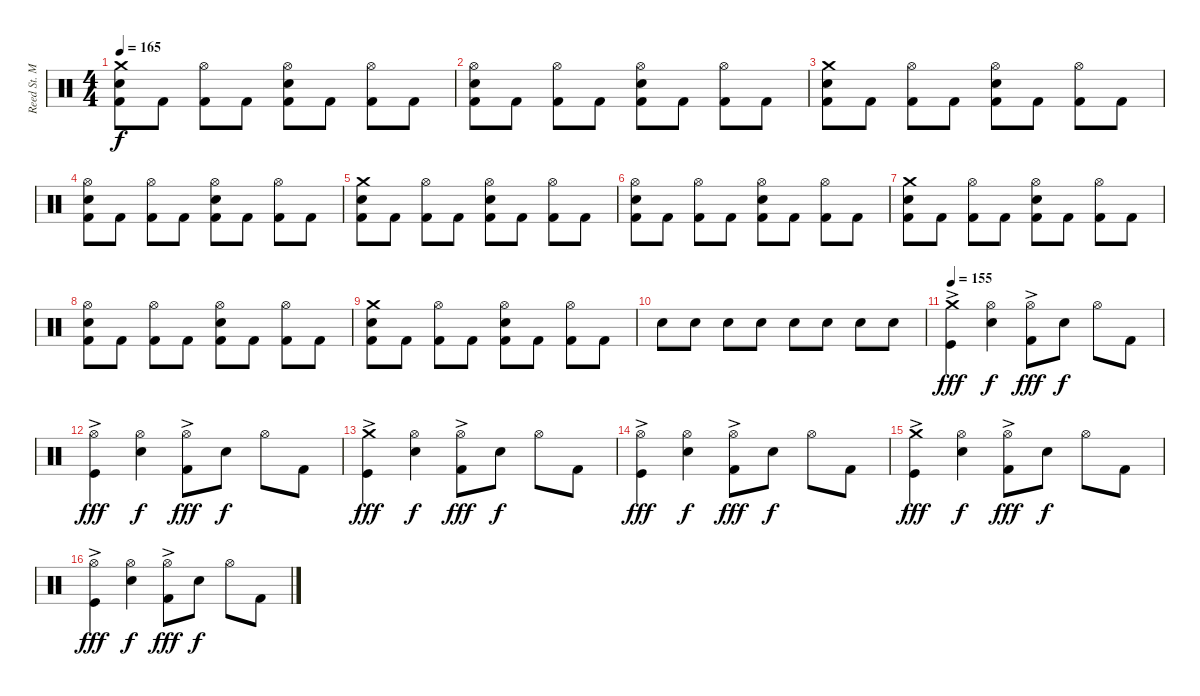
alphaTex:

\track ("Reed St. Mark" "Reed St. M") {instrument percussion}
\staff {score}
\articulation defaults
\ts (4 4)
\tempo 165
\clef neutral
\ks c
("Crash medium (hit)" "Snare (hit) 2" "Kick (hit) 2").8{dy f} "Kick (hit) 2".8 ("Hi-Hat (open)" "Kick (hit) 2").8 "Kick (hit) 2".8 ("Hi-Hat (open)" "Snare (hit) 2" "Kick (hit) 2").8 "Kick (hit) 2".8 ("Hi-Hat (open)" "Kick (hit) 2").8 "Kick (hit) 2".8 |
("Hi-Hat (open)" "Snare (hit) 2" "Kick (hit) 2").8 "Kick (hit) 2".8 ("Hi-Hat (open)" "Kick (hit) 2").8 "Kick (hit) 2".8 ("Hi-Hat (open)" "Snare (hit) 2" "Kick (hit) 2").8 "Kick (hit) 2".8 ("Hi-Hat (open)" "Kick (hit) 2").8 "Kick (hit) 2".8 |
("Crash medium (hit)" "Snare (hit) 2" "Kick (hit) 2").8 "Kick (hit) 2".8 ("Hi-Hat (open)" "Kick (hit) 2").8 "Kick (hit) 2".8 ("Hi-Hat (open)" "Snare (hit) 2" "Kick (hit) 2").8 "Kick (hit) 2".8 ("Hi-Hat (open)" "Kick (hit) 2").8 "Kick (hit) 2".8 |
("Hi-Hat (open)" "Snare (hit) 2" "Kick (hit) 2").8 "Kick (hit) 2".8 ("Hi-Hat (open)" "Kick (hit) 2").8 "Kick (hit) 2".8 ("Hi-Hat (open)" "Snare (hit) 2" "Kick (hit) 2").8 "Kick (hit) 2".8 ("Hi-Hat (open)" "Kick (hit) 2").8 "Kick (hit) 2".8 |
("Crash medium (hit)" "Snare (hit) 2" "Kick (hit) 2").8 "Kick (hit) 2".8 ("Hi-Hat (open)" "Kick (hit) 2").8 "Kick (hit) 2".8 ("Hi-Hat (open)" "Snare (hit) 2" "Kick (hit) 2").8 "Kick (hit) 2".8 ("Hi-Hat (open)" "Kick (hit) 2").8 "Kick (hit) 2".8 |
("Hi-Hat (open)" "Snare (hit) 2" "Kick (hit) 2").8 "Kick (hit) 2".8 ("Hi-Hat (open)" "Kick (hit) 2").8 "Kick (hit) 2".8 ("Hi-Hat (open)" "Snare (hit) 2" "Kick (hit) 2").8 "Kick (hit) 2".8 ("Hi-Hat (open)" "Kick (hit) 2").8 "Kick (hit) 2".8 |
("Crash medium (hit)" "Snare (hit) 2" "Kick (hit) 2").8 "Kick (hit) 2".8 ("Hi-Hat (open)" "Kick (hit) 2").8 "Kick (hit) 2".8 ("Hi-Hat (open)" "Snare (hit) 2" "Kick (hit) 2").8 "Kick (hit) 2".8 ("Hi-Hat (open)" "Kick (hit) 2").8 "Kick (hit) 2".8 |
("Hi-Hat (open)" "Snare (hit) 2" "Kick (hit) 2").8 "Kick (hit) 2".8 ("Hi-Hat (open)" "Kick (hit) 2").8 "Kick (hit) 2".8 ("Hi-Hat (open)" "Snare (hit) 2" "Kick (hit) 2").8 "Kick (hit) 2".8 ("Hi-Hat (open)" "Kick (hit) 2").8 "Kick (hit) 2".8 |
("Crash medium (hit)" "Snare (hit) 2" "Kick (hit) 2").8 "Kick (hit) 2".8 ("Hi-Hat (open)" "Kick (hit) 2").8 "Kick (hit) 2".8 ("Hi-Hat (open)" "Snare (hit) 2" "Kick (hit) 2").8 "Kick (hit) 2".8 ("Hi-Hat (open)" "Kick (hit) 2").8 "Kick (hit) 2".8 |
"Snare (hit) 2".8 "Snare (hit) 2".8 "Snare (hit) 2".8 "Snare (hit) 2".8 "Snare (hit) 2".8 "Snare (hit) 2".8 "Snare (hit) 2".8 "Snare (hit) 2".8 |
\tempo 155
("Crash medium (hit)" "Kick (hit)"{ac}).4{dy fff} ("Hi-Hat (open)" "Snare (hit) 2").4{dy f} ("Hi-Hat (open)"{ac} "Kick (hit) 2").8{dy fff} "Snare (hit) 2".8{dy f} "Hi-Hat (open)".8 "Kick (hit) 2".8 |
("Hi-Hat (open)" "Kick (hit)"{ac}).4{dy fff} ("Hi-Hat (open)" "Snare (hit) 2").4{dy f} ("Hi-Hat (open)"{ac} "Kick (hit) 2").8{dy fff} "Snare (hit) 2".8{dy f} "Hi-Hat (open)".8 "Kick (hit) 2".8 |
("Crash medium (hit)" "Kick (hit)"{ac}).4{dy fff} ("Hi-Hat (open)" "Snare (hit) 2").4{dy f} ("Hi-Hat (open)"{ac} "Kick (hit) 2").8{dy fff} "Snare (hit) 2".8{dy f} "Hi-Hat (open)".8 "Kick (hit) 2".8 |
("Hi-Hat (open)" "Kick (hit)"{ac}).4{dy fff} ("Hi-Hat (open)" "Snare (hit) 2").4{dy f} ("Hi-Hat (open)"{ac} "Kick (hit) 2").8{dy fff} "Snare (hit) 2".8{dy f} "Hi-Hat (open)".8 "Kick (hit) 2".8 |
("Crash medium (hit)" "Kick (hit)"{ac}).4{dy fff} ("Hi-Hat (open)" "Snare (hit) 2").4{dy f} ("Hi-Hat (open)"{ac} "Kick (hit) 2").8{dy fff} "Snare (hit) 2".8{dy f} "Hi-Hat (open)".8 "Kick (hit) 2".8 |
("Hi-Hat (open)" "Kick (hit)"{ac}).4{dy fff} ("Hi-Hat (open)" "Snare (hit) 2").4{dy f} ("Hi-Hat (open)"{ac} "Kick (hit) 2").8{dy fff} "Snare (hit) 2".8{dy f} "Hi-Hat (open)".8 "Kick (hit) 2".8
